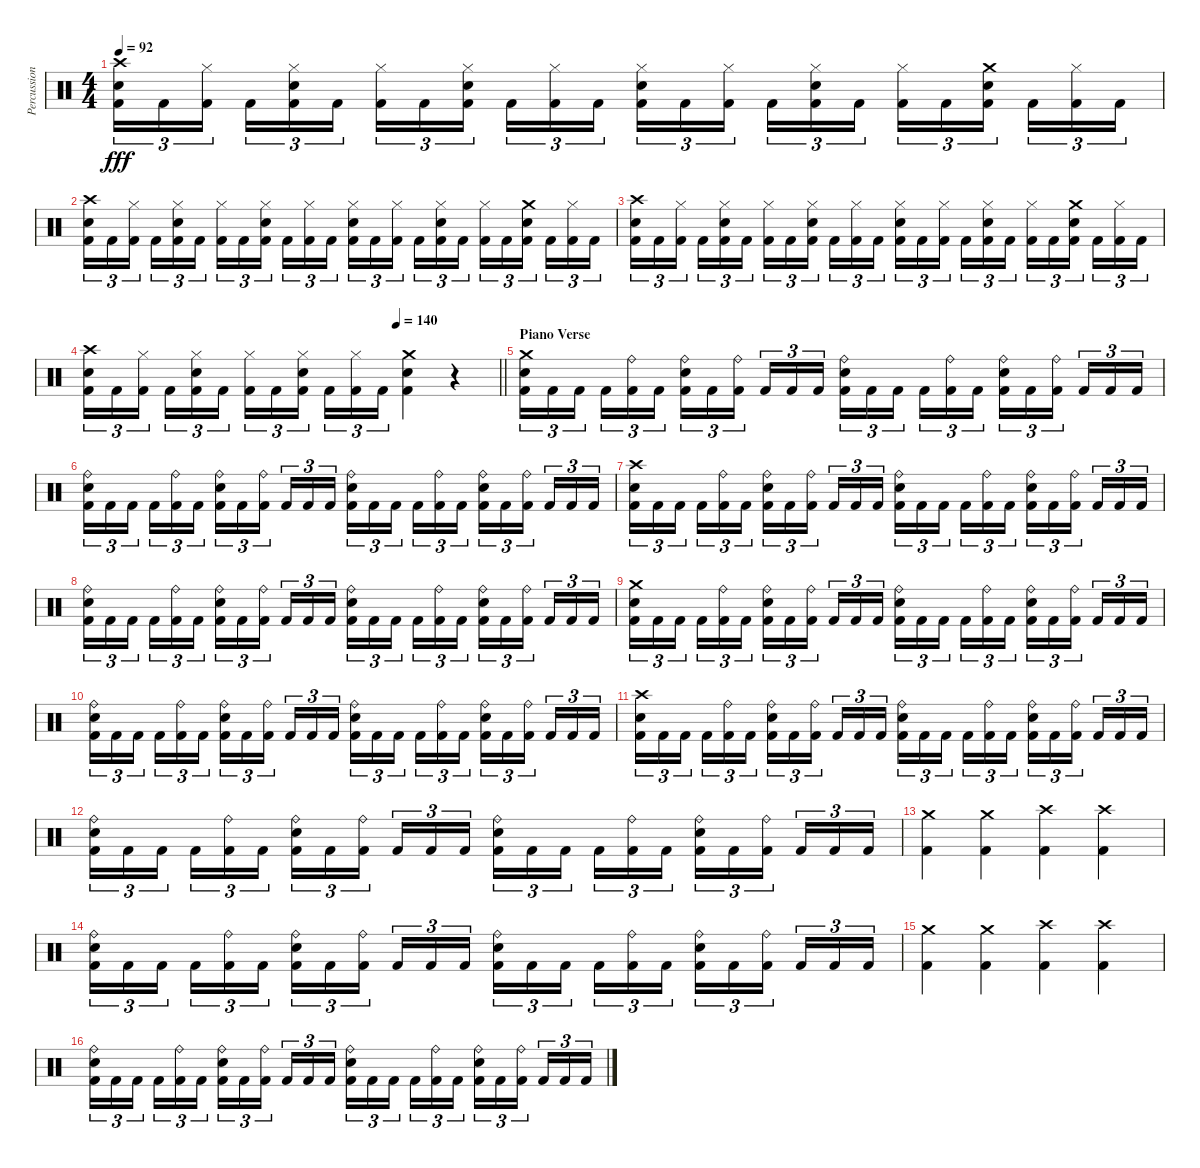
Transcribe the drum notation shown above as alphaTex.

\track ("Percussions" "Percussion") {instrument percussion}
\staff {score}
\articulation defaults
\ts (4 4)
\tempo 92
\clef neutral
\ks c
("Crash high (hit)" "Snare (hit) 2" "Kick (hit) 2").16{tu (3 2) dy fff} "Kick (hit) 2".16{tu (3 2)} ("Hi-Hat (closed)" "Kick (hit) 2").16{tu (3 2) beam splitsecondary} "Kick (hit) 2".16{tu (3 2)} ("Hi-Hat (closed)" "Snare (hit) 2" "Kick (hit) 2").16{tu (3 2)} "Kick (hit) 2".16{tu (3 2)} ("Hi-Hat (closed)" "Kick (hit) 2").16{tu (3 2)} "Kick (hit) 2".16{tu (3 2)} ("Hi-Hat (closed)" "Snare (hit) 2" "Kick (hit) 2").16{tu (3 2) beam splitsecondary} "Kick (hit) 2".16{tu (3 2)} ("Hi-Hat (closed)" "Kick (hit) 2").16{tu (3 2)} "Kick (hit) 2".16{tu (3 2)} ("Hi-Hat (closed)" "Snare (hit) 2" "Kick (hit) 2").16{tu (3 2)} "Kick (hit) 2".16{tu (3 2)} ("Hi-Hat (closed)" "Kick (hit) 2").16{tu (3 2) beam splitsecondary} "Kick (hit) 2".16{tu (3 2)} ("Hi-Hat (closed)" "Snare (hit) 2" "Kick (hit) 2").16{tu (3 2)} "Kick (hit) 2".16{tu (3 2)} ("Hi-Hat (closed)" "Kick (hit) 2").16{tu (3 2)} "Kick (hit) 2".16{tu (3 2)} ("Crash medium (hit)" "Snare (hit) 2" "Kick (hit) 2").16{tu (3 2) beam splitsecondary} "Kick (hit) 2".16{tu (3 2)} ("Hi-Hat (closed)" "Kick (hit) 2").16{tu (3 2)} "Kick (hit) 2".16{tu (3 2)} |
("Crash high (hit)" "Snare (hit) 2" "Kick (hit) 2").16{tu (3 2)} "Kick (hit) 2".16{tu (3 2)} ("Hi-Hat (closed)" "Kick (hit) 2").16{tu (3 2) beam splitsecondary} "Kick (hit) 2".16{tu (3 2)} ("Hi-Hat (closed)" "Snare (hit) 2" "Kick (hit) 2").16{tu (3 2)} "Kick (hit) 2".16{tu (3 2)} ("Hi-Hat (closed)" "Kick (hit) 2").16{tu (3 2)} "Kick (hit) 2".16{tu (3 2)} ("Hi-Hat (closed)" "Snare (hit) 2" "Kick (hit) 2").16{tu (3 2) beam splitsecondary} "Kick (hit) 2".16{tu (3 2)} ("Hi-Hat (closed)" "Kick (hit) 2").16{tu (3 2)} "Kick (hit) 2".16{tu (3 2)} ("Hi-Hat (closed)" "Snare (hit) 2" "Kick (hit) 2").16{tu (3 2)} "Kick (hit) 2".16{tu (3 2)} ("Hi-Hat (closed)" "Kick (hit) 2").16{tu (3 2) beam splitsecondary} "Kick (hit) 2".16{tu (3 2)} ("Hi-Hat (closed)" "Snare (hit) 2" "Kick (hit) 2").16{tu (3 2)} "Kick (hit) 2".16{tu (3 2)} ("Hi-Hat (closed)" "Kick (hit) 2").16{tu (3 2)} "Kick (hit) 2".16{tu (3 2)} ("Crash medium (hit)" "Snare (hit) 2" "Kick (hit) 2").16{tu (3 2) beam splitsecondary} "Kick (hit) 2".16{tu (3 2)} ("Hi-Hat (closed)" "Kick (hit) 2").16{tu (3 2)} "Kick (hit) 2".16{tu (3 2)} |
("Crash high (hit)" "Snare (hit) 2" "Kick (hit) 2").16{tu (3 2)} "Kick (hit) 2".16{tu (3 2)} ("Hi-Hat (closed)" "Kick (hit) 2").16{tu (3 2) beam splitsecondary} "Kick (hit) 2".16{tu (3 2)} ("Hi-Hat (closed)" "Snare (hit) 2" "Kick (hit) 2").16{tu (3 2)} "Kick (hit) 2".16{tu (3 2)} ("Hi-Hat (closed)" "Kick (hit) 2").16{tu (3 2)} "Kick (hit) 2".16{tu (3 2)} ("Hi-Hat (closed)" "Snare (hit) 2" "Kick (hit) 2").16{tu (3 2) beam splitsecondary} "Kick (hit) 2".16{tu (3 2)} ("Hi-Hat (closed)" "Kick (hit) 2").16{tu (3 2)} "Kick (hit) 2".16{tu (3 2)} ("Hi-Hat (closed)" "Snare (hit) 2" "Kick (hit) 2").16{tu (3 2)} "Kick (hit) 2".16{tu (3 2)} ("Hi-Hat (closed)" "Kick (hit) 2").16{tu (3 2) beam splitsecondary} "Kick (hit) 2".16{tu (3 2)} ("Hi-Hat (closed)" "Snare (hit) 2" "Kick (hit) 2").16{tu (3 2)} "Kick (hit) 2".16{tu (3 2)} ("Hi-Hat (closed)" "Kick (hit) 2").16{tu (3 2)} "Kick (hit) 2".16{tu (3 2)} ("Crash medium (hit)" "Snare (hit) 2" "Kick (hit) 2").16{tu (3 2) beam splitsecondary} "Kick (hit) 2".16{tu (3 2)} ("Hi-Hat (closed)" "Kick (hit) 2").16{tu (3 2)} "Kick (hit) 2".16{tu (3 2)} |
\tempo (140 0.75)
\barLineRight lightlight
("Crash high (hit)" "Snare (hit) 2" "Kick (hit) 2").16{tu (3 2)} "Kick (hit) 2".16{tu (3 2)} ("Hi-Hat (closed)" "Kick (hit) 2").16{tu (3 2) beam splitsecondary} "Kick (hit) 2".16{tu (3 2)} ("Hi-Hat (closed)" "Snare (hit) 2" "Kick (hit) 2").16{tu (3 2)} "Kick (hit) 2".16{tu (3 2)} ("Hi-Hat (closed)" "Kick (hit) 2").16{tu (3 2)} "Kick (hit) 2".16{tu (3 2)} ("Hi-Hat (closed)" "Snare (hit) 2" "Kick (hit) 2").16{tu (3 2) beam splitsecondary} "Kick (hit) 2".16{tu (3 2)} ("Hi-Hat (closed)" "Kick (hit) 2").16{tu (3 2)} "Kick (hit) 2".16{tu (3 2)} ("Crash medium (hit)" "Snare (hit) 2" "Kick (hit) 2").4 r.4 |
\section ("" "Piano Verse")
("Crash medium (hit)" "Snare (hit) 2" "Kick (hit) 2").16{tu (3 2)} "Kick (hit) 2".16{tu (3 2)} "Kick (hit) 2".16{tu (3 2) beam splitsecondary} "Kick (hit) 2".16{tu (3 2)} ("Ride (bell)" "Kick (hit) 2").16{tu (3 2)} "Kick (hit) 2".16{tu (3 2)} ("Ride (bell)" "Snare (hit) 2" "Kick (hit) 2").16{tu (3 2)} "Kick (hit) 2".16{tu (3 2)} ("Ride (bell)" "Kick (hit) 2").16{tu (3 2) beam splitsecondary} "Kick (hit) 2".16{tu (3 2)} "Kick (hit) 2".16{tu (3 2)} "Kick (hit) 2".16{tu (3 2)} ("Ride (bell)" "Snare (hit) 2" "Kick (hit) 2").16{tu (3 2)} "Kick (hit) 2".16{tu (3 2)} "Kick (hit) 2".16{tu (3 2) beam splitsecondary} "Kick (hit) 2".16{tu (3 2)} ("Ride (bell)" "Kick (hit) 2").16{tu (3 2)} "Kick (hit) 2".16{tu (3 2)} ("Ride (bell)" "Snare (hit) 2" "Kick (hit) 2").16{tu (3 2)} "Kick (hit) 2".16{tu (3 2)} ("Ride (bell)" "Kick (hit) 2").16{tu (3 2) beam splitsecondary} "Kick (hit) 2".16{tu (3 2)} "Kick (hit) 2".16{tu (3 2)} "Kick (hit) 2".16{tu (3 2)} |
("Ride (bell)" "Snare (hit) 2" "Kick (hit) 2").16{tu (3 2)} "Kick (hit) 2".16{tu (3 2)} "Kick (hit) 2".16{tu (3 2) beam splitsecondary} "Kick (hit) 2".16{tu (3 2)} ("Ride (bell)" "Kick (hit) 2").16{tu (3 2)} "Kick (hit) 2".16{tu (3 2)} ("Ride (bell)" "Snare (hit) 2" "Kick (hit) 2").16{tu (3 2)} "Kick (hit) 2".16{tu (3 2)} ("Ride (bell)" "Kick (hit) 2").16{tu (3 2) beam splitsecondary} "Kick (hit) 2".16{tu (3 2)} "Kick (hit) 2".16{tu (3 2)} "Kick (hit) 2".16{tu (3 2)} ("Ride (bell)" "Snare (hit) 2" "Kick (hit) 2").16{tu (3 2)} "Kick (hit) 2".16{tu (3 2)} "Kick (hit) 2".16{tu (3 2) beam splitsecondary} "Kick (hit) 2".16{tu (3 2)} ("Ride (bell)" "Kick (hit) 2").16{tu (3 2)} "Kick (hit) 2".16{tu (3 2)} ("Ride (bell)" "Snare (hit) 2" "Kick (hit) 2").16{tu (3 2)} "Kick (hit) 2".16{tu (3 2)} ("Ride (bell)" "Kick (hit) 2").16{tu (3 2) beam splitsecondary} "Kick (hit) 2".16{tu (3 2)} "Kick (hit) 2".16{tu (3 2)} "Kick (hit) 2".16{tu (3 2)} |
("Crash high (hit)" "Snare (hit) 2" "Kick (hit) 2").16{tu (3 2)} "Kick (hit) 2".16{tu (3 2)} "Kick (hit) 2".16{tu (3 2) beam splitsecondary} "Kick (hit) 2".16{tu (3 2)} ("Ride (bell)" "Kick (hit) 2").16{tu (3 2)} "Kick (hit) 2".16{tu (3 2)} ("Ride (bell)" "Snare (hit) 2" "Kick (hit) 2").16{tu (3 2)} "Kick (hit) 2".16{tu (3 2)} ("Ride (bell)" "Kick (hit) 2").16{tu (3 2) beam splitsecondary} "Kick (hit) 2".16{tu (3 2)} "Kick (hit) 2".16{tu (3 2)} "Kick (hit) 2".16{tu (3 2)} ("Ride (bell)" "Snare (hit) 2" "Kick (hit) 2").16{tu (3 2)} "Kick (hit) 2".16{tu (3 2)} "Kick (hit) 2".16{tu (3 2) beam splitsecondary} "Kick (hit) 2".16{tu (3 2)} ("Ride (bell)" "Kick (hit) 2").16{tu (3 2)} "Kick (hit) 2".16{tu (3 2)} ("Ride (bell)" "Snare (hit) 2" "Kick (hit) 2").16{tu (3 2)} "Kick (hit) 2".16{tu (3 2)} ("Ride (bell)" "Kick (hit) 2").16{tu (3 2) beam splitsecondary} "Kick (hit) 2".16{tu (3 2)} "Kick (hit) 2".16{tu (3 2)} "Kick (hit) 2".16{tu (3 2)} |
("Ride (bell)" "Snare (hit) 2" "Kick (hit) 2").16{tu (3 2)} "Kick (hit) 2".16{tu (3 2)} "Kick (hit) 2".16{tu (3 2) beam splitsecondary} "Kick (hit) 2".16{tu (3 2)} ("Ride (bell)" "Kick (hit) 2").16{tu (3 2)} "Kick (hit) 2".16{tu (3 2)} ("Ride (bell)" "Snare (hit) 2" "Kick (hit) 2").16{tu (3 2)} "Kick (hit) 2".16{tu (3 2)} ("Ride (bell)" "Kick (hit) 2").16{tu (3 2) beam splitsecondary} "Kick (hit) 2".16{tu (3 2)} "Kick (hit) 2".16{tu (3 2)} "Kick (hit) 2".16{tu (3 2)} ("Ride (bell)" "Snare (hit) 2" "Kick (hit) 2").16{tu (3 2)} "Kick (hit) 2".16{tu (3 2)} "Kick (hit) 2".16{tu (3 2) beam splitsecondary} "Kick (hit) 2".16{tu (3 2)} ("Ride (bell)" "Kick (hit) 2").16{tu (3 2)} "Kick (hit) 2".16{tu (3 2)} ("Ride (bell)" "Snare (hit) 2" "Kick (hit) 2").16{tu (3 2)} "Kick (hit) 2".16{tu (3 2)} ("Ride (bell)" "Kick (hit) 2").16{tu (3 2) beam splitsecondary} "Kick (hit) 2".16{tu (3 2)} "Kick (hit) 2".16{tu (3 2)} "Kick (hit) 2".16{tu (3 2)} |
("Crash medium (hit)" "Snare (hit) 2" "Kick (hit) 2").16{tu (3 2)} "Kick (hit) 2".16{tu (3 2)} "Kick (hit) 2".16{tu (3 2) beam splitsecondary} "Kick (hit) 2".16{tu (3 2)} ("Ride (bell)" "Kick (hit) 2").16{tu (3 2)} "Kick (hit) 2".16{tu (3 2)} ("Ride (bell)" "Snare (hit) 2" "Kick (hit) 2").16{tu (3 2)} "Kick (hit) 2".16{tu (3 2)} ("Ride (bell)" "Kick (hit) 2").16{tu (3 2) beam splitsecondary} "Kick (hit) 2".16{tu (3 2)} "Kick (hit) 2".16{tu (3 2)} "Kick (hit) 2".16{tu (3 2)} ("Ride (bell)" "Snare (hit) 2" "Kick (hit) 2").16{tu (3 2)} "Kick (hit) 2".16{tu (3 2)} "Kick (hit) 2".16{tu (3 2) beam splitsecondary} "Kick (hit) 2".16{tu (3 2)} ("Ride (bell)" "Kick (hit) 2").16{tu (3 2)} "Kick (hit) 2".16{tu (3 2)} ("Ride (bell)" "Snare (hit) 2" "Kick (hit) 2").16{tu (3 2)} "Kick (hit) 2".16{tu (3 2)} ("Ride (bell)" "Kick (hit) 2").16{tu (3 2) beam splitsecondary} "Kick (hit) 2".16{tu (3 2)} "Kick (hit) 2".16{tu (3 2)} "Kick (hit) 2".16{tu (3 2)} |
("Ride (bell)" "Snare (hit) 2" "Kick (hit) 2").16{tu (3 2)} "Kick (hit) 2".16{tu (3 2)} "Kick (hit) 2".16{tu (3 2) beam splitsecondary} "Kick (hit) 2".16{tu (3 2)} ("Ride (bell)" "Kick (hit) 2").16{tu (3 2)} "Kick (hit) 2".16{tu (3 2)} ("Ride (bell)" "Snare (hit) 2" "Kick (hit) 2").16{tu (3 2)} "Kick (hit) 2".16{tu (3 2)} ("Ride (bell)" "Kick (hit) 2").16{tu (3 2) beam splitsecondary} "Kick (hit) 2".16{tu (3 2)} "Kick (hit) 2".16{tu (3 2)} "Kick (hit) 2".16{tu (3 2)} ("Ride (bell)" "Snare (hit) 2" "Kick (hit) 2").16{tu (3 2)} "Kick (hit) 2".16{tu (3 2)} "Kick (hit) 2".16{tu (3 2) beam splitsecondary} "Kick (hit) 2".16{tu (3 2)} ("Ride (bell)" "Kick (hit) 2").16{tu (3 2)} "Kick (hit) 2".16{tu (3 2)} ("Ride (bell)" "Snare (hit) 2" "Kick (hit) 2").16{tu (3 2)} "Kick (hit) 2".16{tu (3 2)} ("Ride (bell)" "Kick (hit) 2").16{tu (3 2) beam splitsecondary} "Kick (hit) 2".16{tu (3 2)} "Kick (hit) 2".16{tu (3 2)} "Kick (hit) 2".16{tu (3 2)} |
("Crash high (hit)" "Snare (hit) 2" "Kick (hit) 2").16{tu (3 2)} "Kick (hit) 2".16{tu (3 2)} "Kick (hit) 2".16{tu (3 2) beam splitsecondary} "Kick (hit) 2".16{tu (3 2)} ("Ride (bell)" "Kick (hit) 2").16{tu (3 2)} "Kick (hit) 2".16{tu (3 2)} ("Ride (bell)" "Snare (hit) 2" "Kick (hit) 2").16{tu (3 2)} "Kick (hit) 2".16{tu (3 2)} ("Ride (bell)" "Kick (hit) 2").16{tu (3 2) beam splitsecondary} "Kick (hit) 2".16{tu (3 2)} "Kick (hit) 2".16{tu (3 2)} "Kick (hit) 2".16{tu (3 2)} ("Ride (bell)" "Snare (hit) 2" "Kick (hit) 2").16{tu (3 2)} "Kick (hit) 2".16{tu (3 2)} "Kick (hit) 2".16{tu (3 2) beam splitsecondary} "Kick (hit) 2".16{tu (3 2)} ("Ride (bell)" "Kick (hit) 2").16{tu (3 2)} "Kick (hit) 2".16{tu (3 2)} ("Ride (bell)" "Snare (hit) 2" "Kick (hit) 2").16{tu (3 2)} "Kick (hit) 2".16{tu (3 2)} ("Ride (bell)" "Kick (hit) 2").16{tu (3 2) beam splitsecondary} "Kick (hit) 2".16{tu (3 2)} "Kick (hit) 2".16{tu (3 2)} "Kick (hit) 2".16{tu (3 2)} |
("Ride (bell)" "Snare (hit) 2" "Kick (hit) 2").16{tu (3 2)} "Kick (hit) 2".16{tu (3 2)} "Kick (hit) 2".16{tu (3 2) beam splitsecondary} "Kick (hit) 2".16{tu (3 2)} ("Ride (bell)" "Kick (hit) 2").16{tu (3 2)} "Kick (hit) 2".16{tu (3 2)} ("Ride (bell)" "Snare (hit) 2" "Kick (hit) 2").16{tu (3 2)} "Kick (hit) 2".16{tu (3 2)} ("Ride (bell)" "Kick (hit) 2").16{tu (3 2) beam splitsecondary} "Kick (hit) 2".16{tu (3 2)} "Kick (hit) 2".16{tu (3 2)} "Kick (hit) 2".16{tu (3 2)} ("Ride (bell)" "Snare (hit) 2" "Kick (hit) 2").16{tu (3 2)} "Kick (hit) 2".16{tu (3 2)} "Kick (hit) 2".16{tu (3 2) beam splitsecondary} "Kick (hit) 2".16{tu (3 2)} ("Ride (bell)" "Kick (hit) 2").16{tu (3 2)} "Kick (hit) 2".16{tu (3 2)} ("Ride (bell)" "Snare (hit) 2" "Kick (hit) 2").16{tu (3 2)} "Kick (hit) 2".16{tu (3 2)} ("Ride (bell)" "Kick (hit) 2").16{tu (3 2) beam splitsecondary} "Kick (hit) 2".16{tu (3 2)} "Kick (hit) 2".16{tu (3 2)} "Kick (hit) 2".16{tu (3 2)} |
("Crash medium (hit)" "Kick (hit) 2").4 ("Crash medium (hit)" "Kick (hit) 2").4 ("Crash high (hit)" "Kick (hit) 2").4 ("Crash high (hit)" "Kick (hit) 2").4 |
("Ride (bell)" "Snare (hit) 2" "Kick (hit) 2").16{tu (3 2)} "Kick (hit) 2".16{tu (3 2)} "Kick (hit) 2".16{tu (3 2) beam splitsecondary} "Kick (hit) 2".16{tu (3 2)} ("Ride (bell)" "Kick (hit) 2").16{tu (3 2)} "Kick (hit) 2".16{tu (3 2)} ("Ride (bell)" "Snare (hit) 2" "Kick (hit) 2").16{tu (3 2)} "Kick (hit) 2".16{tu (3 2)} ("Ride (bell)" "Kick (hit) 2").16{tu (3 2) beam splitsecondary} "Kick (hit) 2".16{tu (3 2)} "Kick (hit) 2".16{tu (3 2)} "Kick (hit) 2".16{tu (3 2)} ("Ride (bell)" "Snare (hit) 2" "Kick (hit) 2").16{tu (3 2)} "Kick (hit) 2".16{tu (3 2)} "Kick (hit) 2".16{tu (3 2) beam splitsecondary} "Kick (hit) 2".16{tu (3 2)} ("Ride (bell)" "Kick (hit) 2").16{tu (3 2)} "Kick (hit) 2".16{tu (3 2)} ("Ride (bell)" "Snare (hit) 2" "Kick (hit) 2").16{tu (3 2)} "Kick (hit) 2".16{tu (3 2)} ("Ride (bell)" "Kick (hit) 2").16{tu (3 2) beam splitsecondary} "Kick (hit) 2".16{tu (3 2)} "Kick (hit) 2".16{tu (3 2)} "Kick (hit) 2".16{tu (3 2)} |
("Crash medium (hit)" "Kick (hit) 2").4 ("Crash medium (hit)" "Kick (hit) 2").4 ("Crash high (hit)" "Kick (hit) 2").4 ("Crash high (hit)" "Kick (hit) 2").4 |
("Ride (bell)" "Snare (hit) 2" "Kick (hit) 2").16{tu (3 2)} "Kick (hit) 2".16{tu (3 2)} "Kick (hit) 2".16{tu (3 2) beam splitsecondary} "Kick (hit) 2".16{tu (3 2)} ("Ride (bell)" "Kick (hit) 2").16{tu (3 2)} "Kick (hit) 2".16{tu (3 2)} ("Ride (bell)" "Snare (hit) 2" "Kick (hit) 2").16{tu (3 2)} "Kick (hit) 2".16{tu (3 2)} ("Ride (bell)" "Kick (hit) 2").16{tu (3 2) beam splitsecondary} "Kick (hit) 2".16{tu (3 2)} "Kick (hit) 2".16{tu (3 2)} "Kick (hit) 2".16{tu (3 2)} ("Ride (bell)" "Snare (hit) 2" "Kick (hit) 2").16{tu (3 2)} "Kick (hit) 2".16{tu (3 2)} "Kick (hit) 2".16{tu (3 2) beam splitsecondary} "Kick (hit) 2".16{tu (3 2)} ("Ride (bell)" "Kick (hit) 2").16{tu (3 2)} "Kick (hit) 2".16{tu (3 2)} ("Ride (bell)" "Snare (hit) 2" "Kick (hit) 2").16{tu (3 2)} "Kick (hit) 2".16{tu (3 2)} ("Ride (bell)" "Kick (hit) 2").16{tu (3 2) beam splitsecondary} "Kick (hit) 2".16{tu (3 2)} "Kick (hit) 2".16{tu (3 2)} "Kick (hit) 2".16{tu (3 2)}
